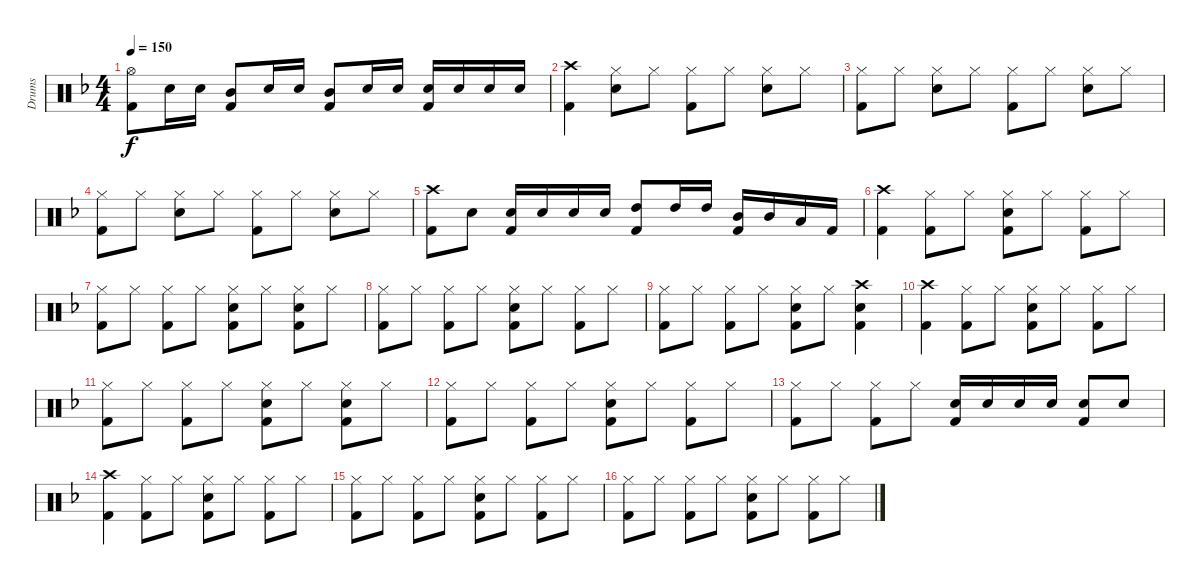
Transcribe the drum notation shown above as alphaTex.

\track ("Drums" "Drums") {instrument percussion}
\staff {score}
\articulation defaults
\ts (4 4)
\tempo 150
\clef neutral
\ks f
("Hi-Hat (open)" "Kick (hit) 2").8{dy f} "Electric Snare (hit)".16 "Electric Snare (hit)".16 ("Mid Tom (hit)" "Kick (hit) 2").8 "Electric Snare (hit)".16 "Electric Snare (hit)".16 ("Mid Tom (hit)" "Kick (hit) 2").8 "Electric Snare (hit)".16 "Electric Snare (hit)".16 ("Electric Snare (hit)" "Kick (hit) 2").16 "Electric Snare (hit)".16 "Electric Snare (hit)".16 "Electric Snare (hit)".16 |
("Crash high (hit)" "Kick (hit) 2").4 ("Hi-Hat (closed)" "Electric Snare (hit)").8 "Hi-Hat (closed)".8 ("Hi-Hat (closed)" "Kick (hit) 2").8 "Hi-Hat (closed)".8 ("Hi-Hat (closed)" "Electric Snare (hit)").8 "Hi-Hat (closed)".8 |
("Hi-Hat (closed)" "Kick (hit) 2").8 "Hi-Hat (closed)".8 ("Hi-Hat (closed)" "Electric Snare (hit)").8 "Hi-Hat (closed)".8 ("Hi-Hat (closed)" "Kick (hit) 2").8 "Hi-Hat (closed)".8 ("Hi-Hat (closed)" "Electric Snare (hit)").8 "Hi-Hat (closed)".8 |
("Hi-Hat (closed)" "Kick (hit) 2").8 "Hi-Hat (closed)".8 ("Hi-Hat (closed)" "Electric Snare (hit)").8 "Hi-Hat (closed)".8 ("Hi-Hat (closed)" "Kick (hit) 2").8 "Hi-Hat (closed)".8 ("Hi-Hat (closed)" "Electric Snare (hit)").8 "Hi-Hat (closed)".8 |
("Crash high (hit)" "Kick (hit) 2").8 "Electric Snare (hit)".8 ("Electric Snare (hit)" "Kick (hit) 2").16 "Electric Snare (hit)".16 "Electric Snare (hit)".16 "Electric Snare (hit)".16 ("High Tom (hit)" "Kick (hit) 2").8 "High Tom (hit)".16 "High Tom (hit)".16 ("Mid Tom (hit)" "Kick (hit) 2").16 "Mid Tom (hit)".16 "Low Tom (hit)".16 "Kick (hit) 2".16 |
("Crash high (hit)" "Kick (hit) 2").4 ("Hi-Hat (closed)" "Kick (hit) 2").8 "Hi-Hat (closed)".8 ("Hi-Hat (closed)" "Electric Snare (hit)" "Kick (hit) 2").8 "Hi-Hat (closed)".8 ("Hi-Hat (closed)" "Kick (hit) 2").8 "Hi-Hat (closed)".8 |
("Hi-Hat (closed)" "Kick (hit) 2").8 "Hi-Hat (closed)".8 ("Hi-Hat (closed)" "Kick (hit) 2").8 "Hi-Hat (closed)".8 ("Hi-Hat (closed)" "Electric Snare (hit)" "Kick (hit) 2").8 "Hi-Hat (closed)".8 ("Hi-Hat (closed)" "Electric Snare (hit)" "Kick (hit) 2").8 "Hi-Hat (closed)".8 |
("Hi-Hat (closed)" "Kick (hit) 2").8 "Hi-Hat (closed)".8 ("Hi-Hat (closed)" "Kick (hit) 2").8 "Hi-Hat (closed)".8 ("Hi-Hat (closed)" "Electric Snare (hit)" "Kick (hit) 2").8 "Hi-Hat (closed)".8 ("Hi-Hat (closed)" "Kick (hit) 2").8 "Hi-Hat (closed)".8 |
("Hi-Hat (closed)" "Kick (hit) 2").8 "Hi-Hat (closed)".8 ("Hi-Hat (closed)" "Kick (hit) 2").8 "Hi-Hat (closed)".8 ("Hi-Hat (closed)" "Electric Snare (hit)" "Kick (hit) 2").8 "Hi-Hat (closed)".8 ("Crash high (hit)" "Electric Snare (hit)" "Kick (hit) 2").4 |
("Crash high (hit)" "Kick (hit) 2").4 ("Hi-Hat (closed)" "Kick (hit) 2").8 "Hi-Hat (closed)".8 ("Hi-Hat (closed)" "Electric Snare (hit)" "Kick (hit) 2").8 "Hi-Hat (closed)".8 ("Hi-Hat (closed)" "Kick (hit) 2").8 "Hi-Hat (closed)".8 |
("Hi-Hat (closed)" "Kick (hit) 2").8 "Hi-Hat (closed)".8 ("Hi-Hat (closed)" "Kick (hit) 2").8 "Hi-Hat (closed)".8 ("Hi-Hat (closed)" "Electric Snare (hit)" "Kick (hit) 2").8 "Hi-Hat (closed)".8 ("Hi-Hat (closed)" "Electric Snare (hit)" "Kick (hit) 2").8 "Hi-Hat (closed)".8 |
("Hi-Hat (closed)" "Kick (hit) 2").8 "Hi-Hat (closed)".8 ("Hi-Hat (closed)" "Kick (hit) 2").8 "Hi-Hat (closed)".8 ("Hi-Hat (closed)" "Electric Snare (hit)" "Kick (hit) 2").8 "Hi-Hat (closed)".8 ("Hi-Hat (closed)" "Kick (hit) 2").8 "Hi-Hat (closed)".8 |
("Hi-Hat (closed)" "Kick (hit) 2").8 "Hi-Hat (closed)".8 ("Hi-Hat (closed)" "Kick (hit) 2").8 "Hi-Hat (closed)".8 ("Electric Snare (hit)" "Kick (hit) 2").16 "Electric Snare (hit)".16 "Electric Snare (hit)".16 "Electric Snare (hit)".16 ("Electric Snare (hit)" "Kick (hit) 2").8 "Electric Snare (hit)".8 |
("Crash high (hit)" "Kick (hit) 2").4 ("Hi-Hat (closed)" "Kick (hit) 2").8 "Hi-Hat (closed)".8 ("Hi-Hat (closed)" "Electric Snare (hit)" "Kick (hit) 2").8 "Hi-Hat (closed)".8 ("Hi-Hat (closed)" "Kick (hit) 2").8 "Hi-Hat (closed)".8 |
("Hi-Hat (closed)" "Kick (hit) 2").8 "Hi-Hat (closed)".8 ("Hi-Hat (closed)" "Kick (hit) 2").8 "Hi-Hat (closed)".8 ("Hi-Hat (closed)" "Electric Snare (hit)" "Kick (hit) 2").8 "Hi-Hat (closed)".8 ("Hi-Hat (closed)" "Kick (hit) 2").8 "Hi-Hat (closed)".8 |
("Hi-Hat (closed)" "Kick (hit) 2").8 "Hi-Hat (closed)".8 ("Hi-Hat (closed)" "Kick (hit) 2").8 "Hi-Hat (closed)".8 ("Hi-Hat (closed)" "Electric Snare (hit)" "Kick (hit) 2").8 "Hi-Hat (closed)".8 ("Hi-Hat (closed)" "Kick (hit) 2").8 "Hi-Hat (closed)".8
